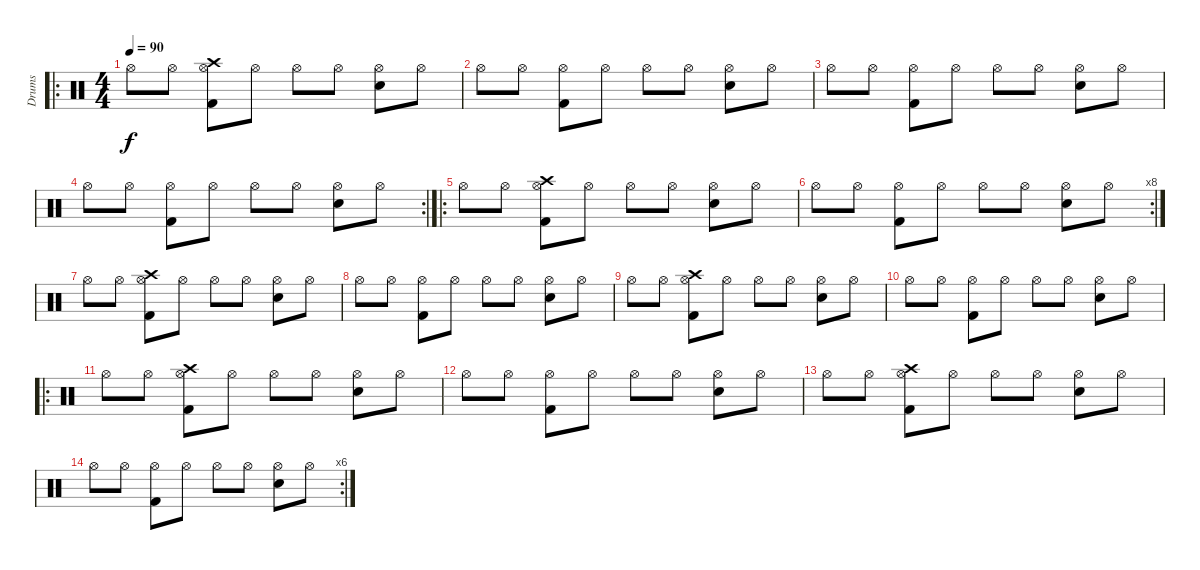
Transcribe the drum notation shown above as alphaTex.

\track ("Drums" "Drums") {instrument percussion}
\staff {score}
\articulation defaults
\ro
\ts (4 4)
\tempo 90
\clef neutral
\ks c "Hi-Hat (open)".8{dy f} "Hi-Hat (open)".8
("Crash high (hit)" "Kick (hit) 2" "Hi-Hat (open)").8 "Hi-Hat (open)".8 "Hi-Hat (open)".8 "Hi-Hat (open)".8 ("Snare (hit) 2" "Hi-Hat (open)").8 "Hi-Hat (open)".8 |
"Hi-Hat (open)".8 "Hi-Hat (open)".8 ("Kick (hit) 2" "Hi-Hat (open)").8 "Hi-Hat (open)".8 "Hi-Hat (open)".8 "Hi-Hat (open)".8 ("Snare (hit) 2" "Hi-Hat (open)").8 "Hi-Hat (open)".8 |
"Hi-Hat (open)".8 "Hi-Hat (open)".8 ("Kick (hit) 2" "Hi-Hat (open)").8 "Hi-Hat (open)".8 "Hi-Hat (open)".8 "Hi-Hat (open)".8 ("Snare (hit) 2" "Hi-Hat (open)").8 "Hi-Hat (open)".8 |
\rc 2 "Hi-Hat (open)".8 "Hi-Hat (open)".8
("Kick (hit) 2" "Hi-Hat (open)").8 "Hi-Hat (open)".8 "Hi-Hat (open)".8 "Hi-Hat (open)".8 ("Snare (hit) 2" "Hi-Hat (open)").8 "Hi-Hat (open)".8 |
\ro "Hi-Hat (open)".8 "Hi-Hat (open)".8
("Crash high (hit)" "Kick (hit) 2" "Hi-Hat (open)").8 "Hi-Hat (open)".8 "Hi-Hat (open)".8 "Hi-Hat (open)".8 ("Snare (hit) 2" "Hi-Hat (open)").8 "Hi-Hat (open)".8 |
\rc 8 "Hi-Hat (open)".8 "Hi-Hat (open)".8
("Kick (hit) 2" "Hi-Hat (open)").8 "Hi-Hat (open)".8 "Hi-Hat (open)".8 "Hi-Hat (open)".8 ("Snare (hit) 2" "Hi-Hat (open)").8 "Hi-Hat (open)".8 |
"Hi-Hat (open)".8 "Hi-Hat (open)".8 ("Crash high (hit)" "Kick (hit) 2" "Hi-Hat (open)").8 "Hi-Hat (open)".8 "Hi-Hat (open)".8 "Hi-Hat (open)".8 ("Snare (hit) 2" "Hi-Hat (open)").8 "Hi-Hat (open)".8 |
"Hi-Hat (open)".8 "Hi-Hat (open)".8 ("Kick (hit) 2" "Hi-Hat (open)").8 "Hi-Hat (open)".8 "Hi-Hat (open)".8 "Hi-Hat (open)".8 ("Snare (hit) 2" "Hi-Hat (open)").8 "Hi-Hat (open)".8 |
"Hi-Hat (open)".8 "Hi-Hat (open)".8 ("Crash high (hit)" "Kick (hit) 2" "Hi-Hat (open)").8 "Hi-Hat (open)".8 "Hi-Hat (open)".8 "Hi-Hat (open)".8 ("Snare (hit) 2" "Hi-Hat (open)").8 "Hi-Hat (open)".8 |
"Hi-Hat (open)".8 "Hi-Hat (open)".8 ("Kick (hit) 2" "Hi-Hat (open)").8 "Hi-Hat (open)".8 "Hi-Hat (open)".8 "Hi-Hat (open)".8 ("Snare (hit) 2" "Hi-Hat (open)").8 "Hi-Hat (open)".8 |
\ro "Hi-Hat (open)".8 "Hi-Hat (open)".8
("Crash high (hit)" "Kick (hit) 2" "Hi-Hat (open)").8 "Hi-Hat (open)".8 "Hi-Hat (open)".8 "Hi-Hat (open)".8 ("Snare (hit) 2" "Hi-Hat (open)").8 "Hi-Hat (open)".8 |
"Hi-Hat (open)".8 "Hi-Hat (open)".8 ("Kick (hit) 2" "Hi-Hat (open)").8 "Hi-Hat (open)".8 "Hi-Hat (open)".8 "Hi-Hat (open)".8 ("Snare (hit) 2" "Hi-Hat (open)").8 "Hi-Hat (open)".8 |
"Hi-Hat (open)".8 "Hi-Hat (open)".8 ("Crash high (hit)" "Kick (hit) 2" "Hi-Hat (open)").8 "Hi-Hat (open)".8 "Hi-Hat (open)".8 "Hi-Hat (open)".8 ("Snare (hit) 2" "Hi-Hat (open)").8 "Hi-Hat (open)".8 |
\rc 6 "Hi-Hat (open)".8 "Hi-Hat (open)".8
("Kick (hit) 2" "Hi-Hat (open)").8 "Hi-Hat (open)".8 "Hi-Hat (open)".8 "Hi-Hat (open)".8 ("Snare (hit) 2" "Hi-Hat (open)").8 "Hi-Hat (open)".8
